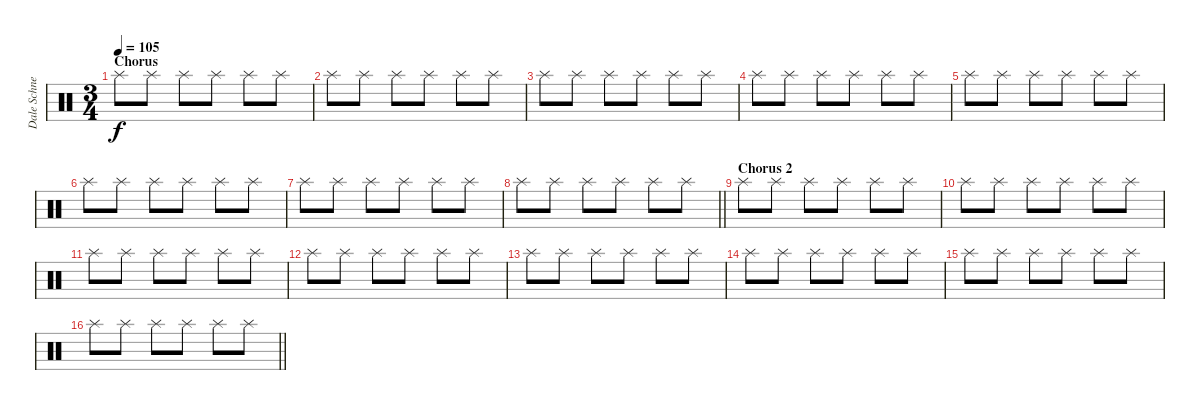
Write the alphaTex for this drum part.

\track ("Dale Schnettler (Drums)" "Dale Schne") {instrument percussion}
\staff {score}
\articulation defaults
\ts (3 4)
\section ("" "Chorus")
\tempo 105
\clef neutral
\ks c "Splash (hit)".8{dy f} "Splash (hit)".8 "Splash (hit)".8 "Splash (hit)".8 "Splash (hit)".8 "Splash (hit)".8
|
"Splash (hit)".8 "Splash (hit)".8 "Splash (hit)".8 "Splash (hit)".8 "Splash (hit)".8 "Splash (hit)".8 |
"Splash (hit)".8 "Splash (hit)".8 "Splash (hit)".8 "Splash (hit)".8 "Splash (hit)".8 "Splash (hit)".8 |
"Splash (hit)".8 "Splash (hit)".8 "Splash (hit)".8 "Splash (hit)".8 "Splash (hit)".8 "Splash (hit)".8 |
"Splash (hit)".8 "Splash (hit)".8 "Splash (hit)".8 "Splash (hit)".8 "Splash (hit)".8 "Splash (hit)".8 |
"Splash (hit)".8 "Splash (hit)".8 "Splash (hit)".8 "Splash (hit)".8 "Splash (hit)".8 "Splash (hit)".8 |
"Splash (hit)".8 "Splash (hit)".8 "Splash (hit)".8 "Splash (hit)".8 "Splash (hit)".8 "Splash (hit)".8 |
\barLineRight lightlight "Splash (hit)".8 "Splash (hit)".8 "Splash (hit)".8 "Splash (hit)".8 "Splash (hit)".8 "Splash (hit)".8
|
\section ("" "Chorus 2")
"Splash (hit)".8 "Splash (hit)".8 "Splash (hit)".8 "Splash (hit)".8 "Splash (hit)".8 "Splash (hit)".8 |
"Splash (hit)".8 "Splash (hit)".8 "Splash (hit)".8 "Splash (hit)".8 "Splash (hit)".8 "Splash (hit)".8 |
"Splash (hit)".8 "Splash (hit)".8 "Splash (hit)".8 "Splash (hit)".8 "Splash (hit)".8 "Splash (hit)".8 |
"Splash (hit)".8 "Splash (hit)".8 "Splash (hit)".8 "Splash (hit)".8 "Splash (hit)".8 "Splash (hit)".8 |
"Splash (hit)".8 "Splash (hit)".8 "Splash (hit)".8 "Splash (hit)".8 "Splash (hit)".8 "Splash (hit)".8 |
"Splash (hit)".8 "Splash (hit)".8 "Splash (hit)".8 "Splash (hit)".8 "Splash (hit)".8 "Splash (hit)".8 |
"Splash (hit)".8 "Splash (hit)".8 "Splash (hit)".8 "Splash (hit)".8 "Splash (hit)".8 "Splash (hit)".8 |
\barLineRight lightlight "Splash (hit)".8 "Splash (hit)".8 "Splash (hit)".8 "Splash (hit)".8 "Splash (hit)".8 "Splash (hit)".8
